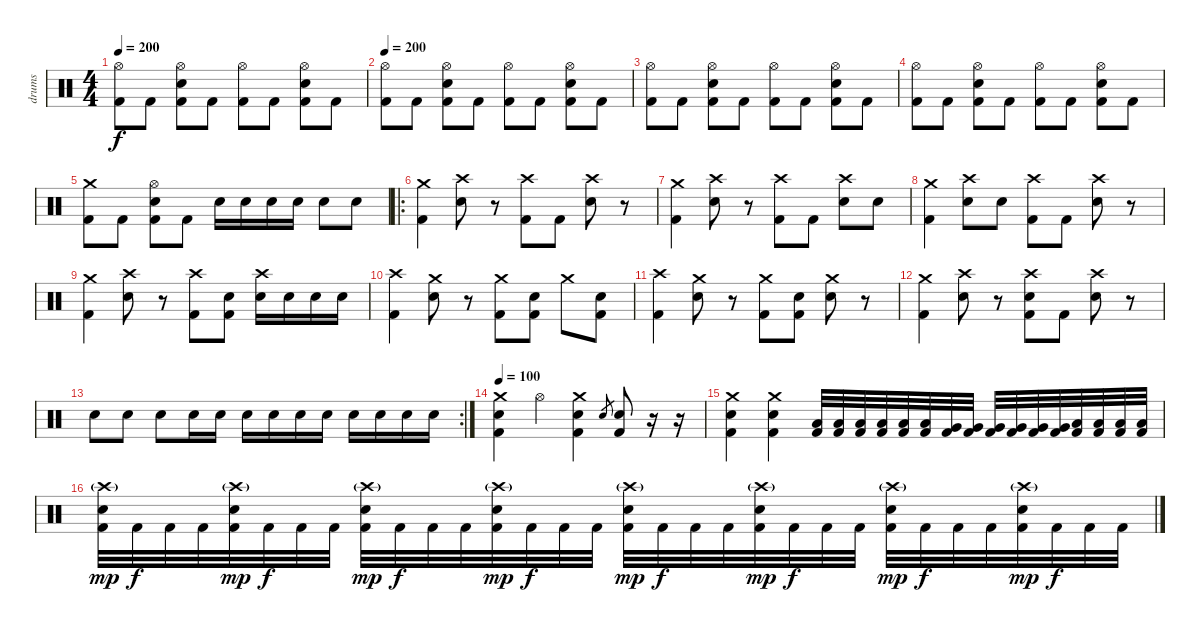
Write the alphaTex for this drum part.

\track ("drums" "drums") {instrument percussion}
\staff {score}
\articulation defaults
\ts (4 4)
\tempo 200
\clef neutral
\ks c
("Hi-Hat (open)" "Kick (hit) 2").8{dy f} "Kick (hit) 2".8 ("Hi-Hat (open)" "Electric Snare (hit)" "Kick (hit) 2").8 "Kick (hit) 2".8 ("Hi-Hat (open)" "Kick (hit) 2").8 "Kick (hit) 2".8 ("Hi-Hat (open)" "Electric Snare (hit)" "Kick (hit) 2").8 "Kick (hit) 2".8 |
\tempo 200
("Hi-Hat (open)" "Kick (hit) 2").8 "Kick (hit) 2".8 ("Hi-Hat (open)" "Electric Snare (hit)" "Kick (hit) 2").8 "Kick (hit) 2".8 ("Hi-Hat (open)" "Kick (hit) 2").8 "Kick (hit) 2".8 ("Hi-Hat (open)" "Electric Snare (hit)" "Kick (hit) 2").8 "Kick (hit) 2".8 |
("Hi-Hat (open)" "Kick (hit) 2").8 "Kick (hit) 2".8 ("Hi-Hat (open)" "Electric Snare (hit)" "Kick (hit) 2").8 "Kick (hit) 2".8 ("Hi-Hat (open)" "Kick (hit) 2").8 "Kick (hit) 2".8 ("Hi-Hat (open)" "Electric Snare (hit)" "Kick (hit) 2").8 "Kick (hit) 2".8 |
("Hi-Hat (open)" "Kick (hit) 2").8 "Kick (hit) 2".8 ("Hi-Hat (open)" "Electric Snare (hit)" "Kick (hit) 2").8 "Kick (hit) 2".8 ("Hi-Hat (open)" "Kick (hit) 2").8 "Kick (hit) 2".8 ("Hi-Hat (open)" "Electric Snare (hit)" "Kick (hit) 2").8 "Kick (hit) 2".8 |
("Crash medium (hit)" "Kick (hit) 2").8 "Kick (hit) 2".8 ("Hi-Hat (open)" "Electric Snare (hit)" "Kick (hit) 2").8 "Kick (hit) 2".8 "Electric Snare (hit)".16 "Electric Snare (hit)".16 "Electric Snare (hit)".16 "Electric Snare (hit)".16 "Electric Snare (hit)".8 "Electric Snare (hit)".8 |
\ro
("Crash medium (hit)" "Kick (hit) 2").4 ("Crash high (hit)" "Electric Snare (hit)").8 r.8 ("Crash high (hit)" "Kick (hit) 2").8 "Kick (hit) 2".8 ("Crash high (hit)" "Electric Snare (hit)").8 r.8 |
("Crash medium (hit)" "Kick (hit) 2").4 ("Crash high (hit)" "Electric Snare (hit)").8 r.8 ("Crash high (hit)" "Kick (hit) 2").8 "Kick (hit) 2".8 ("Crash high (hit)" "Electric Snare (hit)").8 "Electric Snare (hit)".8 |
("Crash medium (hit)" "Kick (hit) 2").4 ("Crash high (hit)" "Electric Snare (hit)").8 "Electric Snare (hit)".8 ("Crash high (hit)" "Kick (hit) 2").8 "Kick (hit) 2".8 ("Crash high (hit)" "Electric Snare (hit)").8 r.8 |
("Crash medium (hit)" "Kick (hit) 2").4 ("Crash high (hit)" "Electric Snare (hit)").8 r.8 ("Crash high (hit)" "Kick (hit) 2").8 ("Electric Snare (hit)" "Kick (hit) 2").8 ("Crash high (hit)" "Electric Snare (hit)").16 "Electric Snare (hit)".16 "Electric Snare (hit)".16 "Electric Snare (hit)".16 |
("Crash high (hit)" "Kick (hit) 2").4 ("Crash medium (hit)" "Electric Snare (hit)").8 r.8 ("Crash medium (hit)" "Kick (hit) 2").8 ("Electric Snare (hit)" "Kick (hit) 2").8 "Crash medium (hit)".8 ("Electric Snare (hit)" "Kick (hit) 2").8 |
("Crash high (hit)" "Kick (hit) 2").4 ("Crash medium (hit)" "Electric Snare (hit)").8 r.8 ("Crash medium (hit)" "Kick (hit) 2").8 ("Electric Snare (hit)" "Kick (hit) 2").8 ("Crash medium (hit)" "Electric Snare (hit)").8 r.8 |
("Crash medium (hit)" "Kick (hit) 2").4 ("Crash high (hit)" "Electric Snare (hit)").8 r.8 ("Crash high (hit)" "Electric Snare (hit)" "Kick (hit) 2").8 "Kick (hit) 2".8 ("Crash high (hit)" "Electric Snare (hit)").8 r.8 |
\rc 2 "Electric Snare (hit)".8 "Electric Snare (hit)".8 "Electric Snare (hit)".8 "Electric Snare (hit)".16 "Electric Snare (hit)".16 "Electric Snare (hit)".16 "Electric Snare (hit)".16 "Electric Snare (hit)".16 "Electric Snare (hit)".16 "Electric Snare (hit)".16 "Electric Snare (hit)".16 "Electric Snare (hit)".16 "Electric Snare (hit)".16
|
\tempo 100
("Crash medium (hit)" "Electric Snare (hit)" "Kick (hit) 2").4 "Hi-Hat (open)".4 ("Crash medium (hit)" "Electric Snare (hit)" "Kick (hit) 2").4 "Electric Snare (hit)".8{gr} ("Electric Snare (hit)" "Kick (hit) 2").8 r.16 r.16 |
("Crash medium (hit)" "Electric Snare (hit)" "Kick (hit) 2").4 ("Crash medium (hit)" "Electric Snare (hit)" "Kick (hit) 2").4 ("Low Tom (hit)" "Kick (hit) 2").32 ("Low Tom (hit)" "Kick (hit) 2").32 ("Low Tom (hit)" "Kick (hit) 2").32 ("Low Tom (hit)" "Kick (hit) 2").32 ("Low Tom (hit)" "Kick (hit) 2").32 ("Low Tom (hit)" "Kick (hit) 2").32 ("Very Low Tom (hit)" "Kick (hit) 2").32 ("Very Low Tom (hit)" "Kick (hit) 2").32 ("Very Low Tom (hit)" "Kick (hit) 2").32 ("Very Low Tom (hit)" "Kick (hit) 2").32 ("Very Low Tom (hit)" "Kick (hit) 2").32 ("Very Low Tom (hit)" "Kick (hit) 2").32 ("Low Floor Tom (hit)" "Kick (hit) 2").32 ("Low Floor Tom (hit)" "Kick (hit) 2").32 ("Low Floor Tom (hit)" "Kick (hit) 2").32 ("Low Floor Tom (hit)" "Kick (hit) 2").32 |
("Crash high (hit)"{g} "Electric Snare (hit)" "Kick (hit) 2").32{dy mp} "Kick (hit) 2".32{dy f} "Kick (hit) 2".32 "Kick (hit) 2".32 ("Crash high (hit)"{g} "Electric Snare (hit)" "Kick (hit) 2").32{dy mp} "Kick (hit) 2".32{dy f} "Kick (hit) 2".32 "Kick (hit) 2".32 ("Crash high (hit)"{g} "Electric Snare (hit)" "Kick (hit) 2").32{dy mp} "Kick (hit) 2".32{dy f} "Kick (hit) 2".32 "Kick (hit) 2".32 ("Crash high (hit)"{g} "Electric Snare (hit)" "Kick (hit) 2").32{dy mp} "Kick (hit) 2".32{dy f} "Kick (hit) 2".32 "Kick (hit) 2".32 ("Crash high (hit)"{g} "Electric Snare (hit)" "Kick (hit) 2").32{dy mp} "Kick (hit) 2".32{dy f} "Kick (hit) 2".32 "Kick (hit) 2".32 ("Crash high (hit)"{g} "Electric Snare (hit)" "Kick (hit) 2").32{dy mp} "Kick (hit) 2".32{dy f} "Kick (hit) 2".32 "Kick (hit) 2".32 ("Crash high (hit)"{g} "Electric Snare (hit)" "Kick (hit) 2").32{dy mp} "Kick (hit) 2".32{dy f} "Kick (hit) 2".32 "Kick (hit) 2".32 ("Crash high (hit)"{g} "Electric Snare (hit)" "Kick (hit) 2").32{dy mp} "Kick (hit) 2".32{dy f} "Kick (hit) 2".32 "Kick (hit) 2".32
